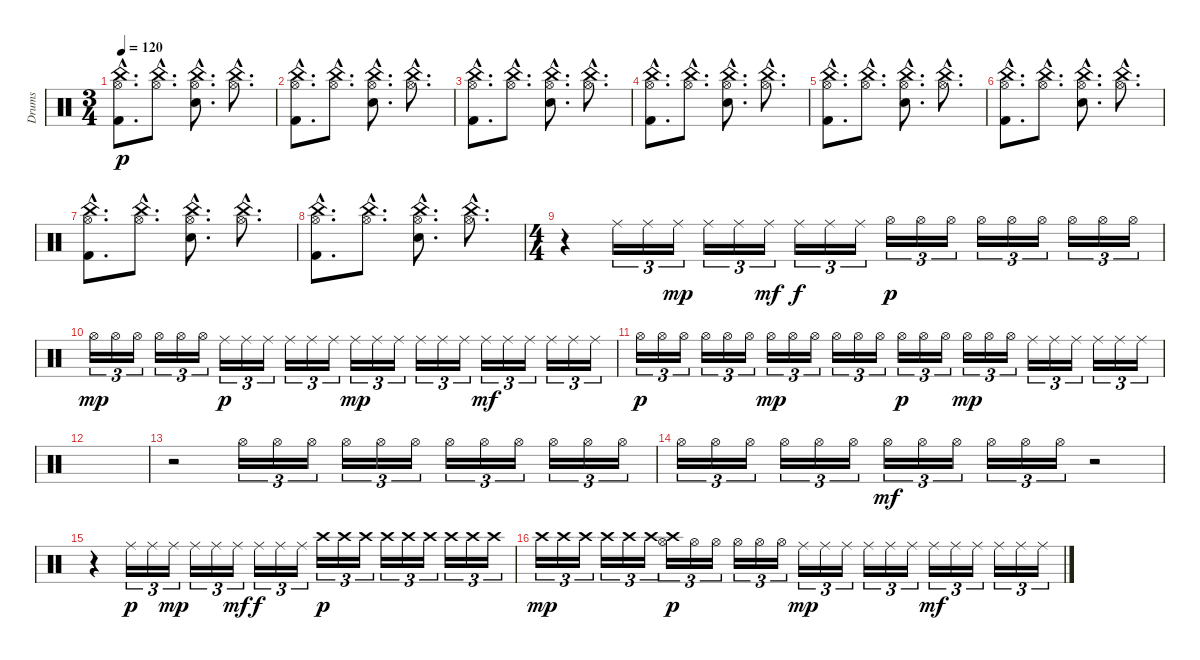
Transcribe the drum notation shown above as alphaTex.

\track ("Drums" "Drums") {instrument percussion}
\staff {score}
\articulation defaults
\ts (3 4)
\tempo 120
\clef neutral
\ks c
("China (hit)"{hac} "Hi-Hat (open)"{hac} "Kick (hit) 2"{hac}).8{d dy p} ("China (hit)"{hac} "Hi-Hat (open)"{hac}).8{d} ("China (hit)"{hac} "Hi-Hat (open)"{hac} "Electric Snare (hit)"{hac}).8{d} ("China (hit)"{hac} "Hi-Hat (open)"{hac}).8{d} |
("China (hit)"{hac} "Hi-Hat (open)"{hac} "Kick (hit) 2"{hac}).8{d} ("China (hit)"{hac} "Hi-Hat (open)"{hac}).8{d} ("China (hit)"{hac} "Hi-Hat (open)"{hac} "Electric Snare (hit)"{hac}).8{d} ("China (hit)"{hac} "Hi-Hat (open)"{hac}).8{d} |
("China (hit)"{hac} "Hi-Hat (open)"{hac} "Kick (hit) 2"{hac}).8{d} ("China (hit)"{hac} "Hi-Hat (open)"{hac}).8{d} ("China (hit)"{hac} "Hi-Hat (open)"{hac} "Electric Snare (hit)"{hac}).8{d} ("China (hit)"{hac} "Hi-Hat (open)"{hac}).8{d} |
("China (hit)"{hac} "Hi-Hat (open)"{hac} "Kick (hit) 2"{hac}).8{d} ("China (hit)"{hac} "Hi-Hat (open)"{hac}).8{d} ("China (hit)"{hac} "Hi-Hat (open)"{hac} "Electric Snare (hit)"{hac}).8{d} ("China (hit)"{hac} "Hi-Hat (open)"{hac}).8{d} |
("China (hit)"{hac} "Hi-Hat (open)"{hac} "Kick (hit) 2"{hac}).8{d} ("China (hit)"{hac} "Hi-Hat (open)"{hac}).8{d} ("China (hit)"{hac} "Hi-Hat (open)"{hac} "Electric Snare (hit)"{hac}).8{d} ("China (hit)"{hac} "Hi-Hat (open)"{hac}).8{d} |
("China (hit)"{hac} "Hi-Hat (open)"{hac} "Kick (hit) 2"{hac}).8{d} ("China (hit)"{hac} "Hi-Hat (open)"{hac}).8{d} ("China (hit)"{hac} "Hi-Hat (open)"{hac} "Electric Snare (hit)"{hac}).8{d} ("China (hit)"{hac} "Hi-Hat (open)"{hac}).8{d} |
("China (hit)"{hac} "Hi-Hat (open)"{hac} "Kick (hit) 2"{hac}).8{d} ("China (hit)"{hac} "Hi-Hat (open)"{hac}).8{d} ("China (hit)"{hac} "Hi-Hat (open)"{hac} "Electric Snare (hit)"{hac}).8{d} ("China (hit)"{hac} "Hi-Hat (open)"{hac}).8{d} |
("China (hit)"{hac} "Hi-Hat (open)"{hac} "Kick (hit) 2"{hac}).8{d} ("China (hit)"{hac} "Hi-Hat (open)"{hac}).8{d} ("China (hit)"{hac} "Hi-Hat (open)"{hac} "Electric Snare (hit)"{hac}).8{d} ("China (hit)"{hac} "Hi-Hat (open)"{hac}).8{d} |
\ts (4 4)
r.4 "Ride (middle)".16{tu (3 2)} "Ride (middle)".16{tu (3 2)} "Ride (middle)".16{tu (3 2) dy mp} "Ride (middle)".16{tu (3 2)} "Ride (middle)".16{tu (3 2)} "Ride (middle)".16{tu (3 2) dy mf} "Ride (middle)".16{tu (3 2) dy f} "Ride (middle)".16{tu (3 2)} "Ride (middle)".16{tu (3 2)} "Hi-Hat (open)".16{tu (3 2) dy p} "Hi-Hat (open)".16{tu (3 2)} "Hi-Hat (open)".16{tu (3 2)} "Hi-Hat (open)".16{tu (3 2)} "Hi-Hat (open)".16{tu (3 2)} "Hi-Hat (open)".16{tu (3 2)} "Hi-Hat (open)".16{tu (3 2)} "Hi-Hat (open)".16{tu (3 2)} "Hi-Hat (open)".16{tu (3 2)} |
"Hi-Hat (open)".16{tu (3 2) dy mp} "Hi-Hat (open)".16{tu (3 2)} "Hi-Hat (open)".16{tu (3 2)} "Hi-Hat (open)".16{tu (3 2)} "Hi-Hat (open)".16{tu (3 2)} "Hi-Hat (open)".16{tu (3 2)} "Ride (middle)".16{tu (3 2) dy p} "Ride (middle)".16{tu (3 2)} "Ride (middle)".16{tu (3 2)} "Ride (middle)".16{tu (3 2)} "Ride (middle)".16{tu (3 2)} "Ride (middle)".16{tu (3 2)} "Ride (middle)".16{tu (3 2) dy mp} "Ride (middle)".16{tu (3 2)} "Ride (middle)".16{tu (3 2)} "Ride (middle)".16{tu (3 2)} "Ride (middle)".16{tu (3 2)} "Ride (middle)".16{tu (3 2)} "Ride (middle)".16{tu (3 2) dy mf} "Ride (middle)".16{tu (3 2)} "Ride (middle)".16{tu (3 2)} "Ride (middle)".16{tu (3 2)} "Ride (middle)".16{tu (3 2)} "Ride (middle)".16{tu (3 2)} |
"Hi-Hat (open)".16{tu (3 2) dy p} "Hi-Hat (open)".16{tu (3 2)} "Hi-Hat (open)".16{tu (3 2)} "Hi-Hat (open)".16{tu (3 2)} "Hi-Hat (open)".16{tu (3 2)} "Hi-Hat (open)".16{tu (3 2)} "Hi-Hat (open)".16{tu (3 2) dy mp} "Hi-Hat (open)".16{tu (3 2)} "Hi-Hat (open)".16{tu (3 2)} "Hi-Hat (open)".16{tu (3 2)} "Hi-Hat (open)".16{tu (3 2)} "Hi-Hat (open)".16{tu (3 2)} "Hi-Hat (open)".16{tu (3 2) dy p} "Hi-Hat (open)".16{tu (3 2)} "Hi-Hat (open)".16{tu (3 2)} "Hi-Hat (open)".16{tu (3 2) dy mp} "Hi-Hat (open)".16{tu (3 2)} "Hi-Hat (open)".16{tu (3 2)} "Ride (middle)".16{tu (3 2)} "Ride (middle)".16{tu (3 2)} "Ride (middle)".16{tu (3 2)} "Ride (middle)".16{tu (3 2)} "Ride (middle)".16{tu (3 2)} "Ride (middle)".16{tu (3 2)} |
|
r.2 "Hi-Hat (open)".16{tu (3 2)} "Hi-Hat (open)".16{tu (3 2)} "Hi-Hat (open)".16{tu (3 2)} "Hi-Hat (open)".16{tu (3 2)} "Hi-Hat (open)".16{tu (3 2)} "Hi-Hat (open)".16{tu (3 2)} "Hi-Hat (open)".16{tu (3 2)} "Hi-Hat (open)".16{tu (3 2)} "Hi-Hat (open)".16{tu (3 2)} "Hi-Hat (open)".16{tu (3 2)} "Hi-Hat (open)".16{tu (3 2)} "Hi-Hat (open)".16{tu (3 2)} |
"Hi-Hat (open)".16{tu (3 2)} "Hi-Hat (open)".16{tu (3 2)} "Hi-Hat (open)".16{tu (3 2)} "Hi-Hat (open)".16{tu (3 2)} "Hi-Hat (open)".16{tu (3 2)} "Hi-Hat (open)".16{tu (3 2)} "Hi-Hat (open)".16{tu (3 2) dy mf} "Hi-Hat (open)".16{tu (3 2)} "Hi-Hat (open)".16{tu (3 2)} "Hi-Hat (open)".16{tu (3 2)} "Hi-Hat (open)".16{tu (3 2)} "Hi-Hat (open)".16{tu (3 2)} r.2 |
r.4 "Ride (middle)".16{tu (3 2) dy p} "Ride (middle)".16{tu (3 2)} "Ride (middle)".16{tu (3 2) dy mp} "Ride (middle)".16{tu (3 2)} "Ride (middle)".16{tu (3 2)} "Ride (middle)".16{tu (3 2) dy mf} "Ride (middle)".16{tu (3 2) dy f} "Ride (middle)".16{tu (3 2)} "Ride (middle)".16{tu (3 2)} "Crash high (hit)".16{tu (3 2) dy p} "Crash high (hit)".16{tu (3 2)} "Crash high (hit)".16{tu (3 2)} "Crash high (hit)".16{tu (3 2)} "Crash high (hit)".16{tu (3 2)} "Crash high (hit)".16{tu (3 2)} "Crash high (hit)".16{tu (3 2)} "Crash high (hit)".16{tu (3 2)} "Crash high (hit)".16{tu (3 2)} |
"Crash high (hit)".16{tu (3 2) dy mp} "Crash high (hit)".16{tu (3 2)} "Crash high (hit)".16{tu (3 2)} "Crash high (hit)".16{tu (3 2)} "Crash high (hit)".16{tu (3 2)} "Crash high (hit)".16{tu (3 2)} ("Crash high (hit)" "Hi-Hat (open)").16{tu (3 2) dy p} "Hi-Hat (open)".16{tu (3 2)} "Hi-Hat (open)".16{tu (3 2)} "Hi-Hat (open)".16{tu (3 2)} "Hi-Hat (open)".16{tu (3 2)} "Hi-Hat (open)".16{tu (3 2)} "Ride (middle)".16{tu (3 2) dy mp} "Ride (middle)".16{tu (3 2)} "Ride (middle)".16{tu (3 2)} "Ride (middle)".16{tu (3 2)} "Ride (middle)".16{tu (3 2)} "Ride (middle)".16{tu (3 2)} "Ride (middle)".16{tu (3 2) dy mf} "Ride (middle)".16{tu (3 2)} "Ride (middle)".16{tu (3 2)} "Ride (middle)".16{tu (3 2)} "Ride (middle)".16{tu (3 2)} "Ride (middle)".16{tu (3 2)}
